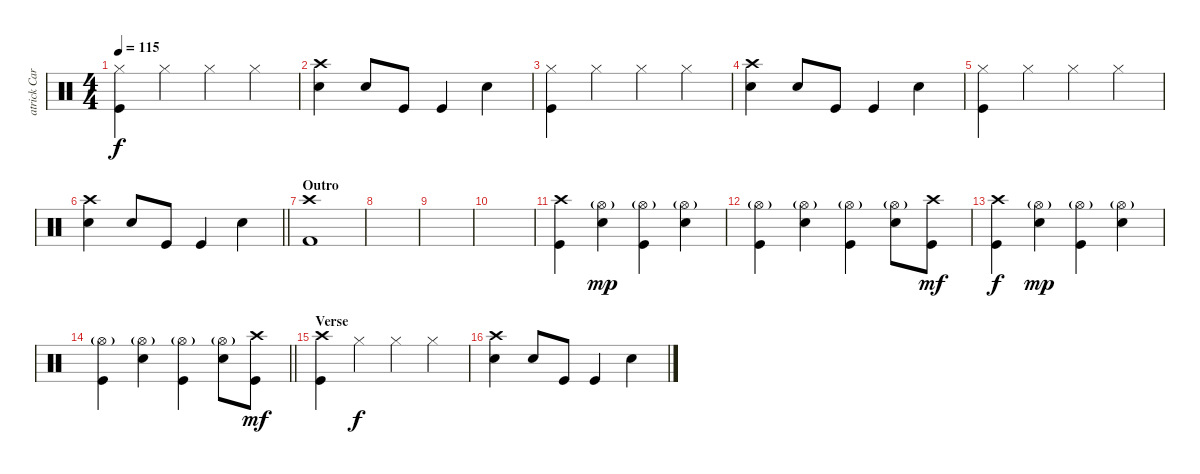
\track ("atrick Carney - Percussion" "atrick Car") {instrument percussion}
\staff {score}
\articulation defaults
\ts (4 4)
\tempo 115
\clef neutral
\ks c
("Hi-Hat (closed)" "Kick (hit)").4{dy f} "Hi-Hat (closed)".4 "Hi-Hat (closed)".4 "Hi-Hat (closed)".4 |
("Crash high (hit)" "Electric Snare (hit)").4 "Electric Snare (hit)".8 "Kick (hit)".8 "Kick (hit)".4 "Electric Snare (hit)".4 |
("Hi-Hat (closed)" "Kick (hit)").4 "Hi-Hat (closed)".4 "Hi-Hat (closed)".4 "Hi-Hat (closed)".4 |
("Crash high (hit)" "Electric Snare (hit)").4 "Electric Snare (hit)".8 "Kick (hit)".8 "Kick (hit)".4 "Electric Snare (hit)".4 |
("Hi-Hat (closed)" "Kick (hit)").4 "Hi-Hat (closed)".4 "Hi-Hat (closed)".4 "Hi-Hat (closed)".4 |
\barLineRight lightlight
("Crash high (hit)" "Electric Snare (hit)").4 "Electric Snare (hit)".8 "Kick (hit)".8 "Kick (hit)".4 "Electric Snare (hit)".4 |
\section ("" "Outro")
("Crash high (hit)" "Kick (hit) 2").1 |
|
|
|
("Crash high (hit)" "Kick (hit)").4 ("Hi-Hat (open)"{g} "Electric Snare (hit)").4{dy mp} ("Hi-Hat (open)"{g} "Kick (hit)").4 ("Hi-Hat (open)"{g} "Electric Snare (hit)").4 |
("Hi-Hat (open)"{g} "Kick (hit)").4 ("Hi-Hat (open)"{g} "Electric Snare (hit)").4 ("Hi-Hat (open)"{g} "Kick (hit)").4 ("Hi-Hat (open)"{g} "Electric Snare (hit)").8 ("Crash high (hit)" "Kick (hit)").8{dy mf} |
("Crash high (hit)" "Kick (hit)").4{dy f} ("Hi-Hat (open)"{g} "Electric Snare (hit)").4{dy mp} ("Hi-Hat (open)"{g} "Kick (hit)").4 ("Hi-Hat (open)"{g} "Electric Snare (hit)").4 |
\barLineRight lightlight
("Hi-Hat (open)"{g} "Kick (hit)").4 ("Hi-Hat (open)"{g} "Electric Snare (hit)").4 ("Hi-Hat (open)"{g} "Kick (hit)").4 ("Hi-Hat (open)"{g} "Electric Snare (hit)").8 ("Crash high (hit)" "Kick (hit)").8{dy mf} |
\section ("" "Verse")
("Crash high (hit)" "Kick (hit)").4 "Hi-Hat (closed)".4{dy f} "Hi-Hat (closed)".4 "Hi-Hat (closed)".4 |
("Crash high (hit)" "Electric Snare (hit)").4 "Electric Snare (hit)".8 "Kick (hit)".8 "Kick (hit)".4 "Electric Snare (hit)".4
